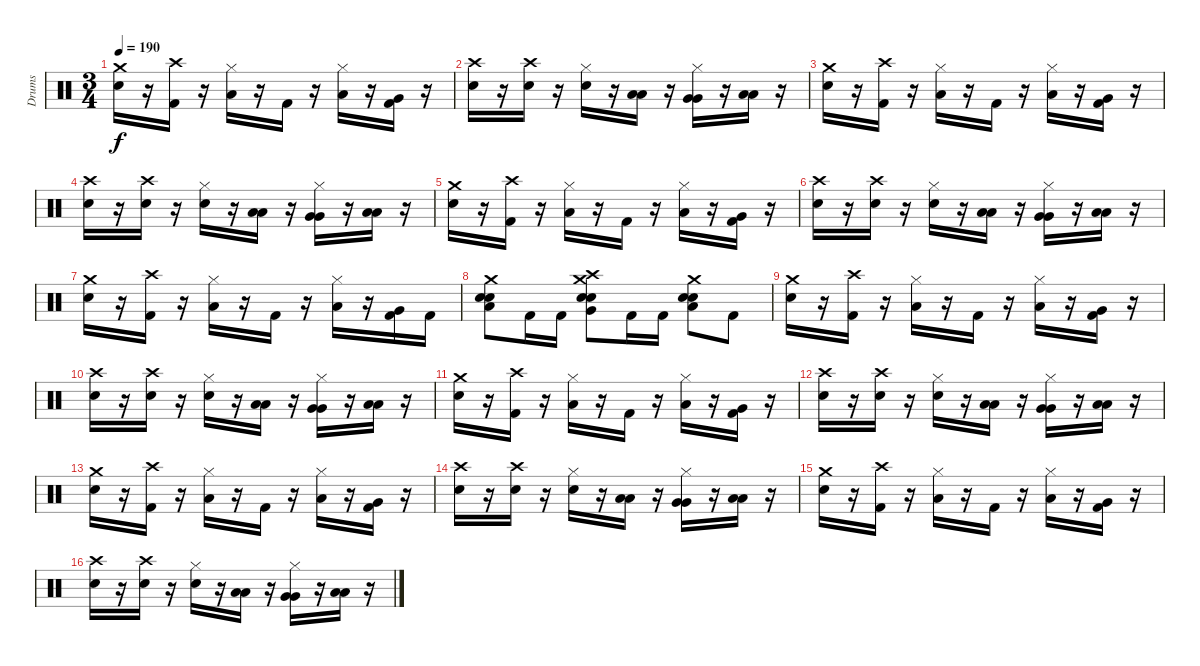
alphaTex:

\track ("Drums" "Drums") {instrument percussion}
\staff {score}
\articulation defaults
\ts (3 4)
\tempo 190
\clef neutral
\ks c
("Crash medium (hit)" "Snare (hit) 2").16{dy f} r.16 ("Crash high (hit)" "Kick (hit) 2").16 r.16 ("Hi-Hat (closed)" "Low Floor Tom (hit)").16 r.16 "Kick (hit) 2".16 r.16 ("Hi-Hat (closed)" "Low Tom (hit)").16 r.16 ("Very Low Tom (hit)" "Kick (hit) 2").16 r.16 |
("Crash high (hit)" "Snare (hit) 2").16 r.16 ("Crash high (hit)" "Snare (hit) 2").16 r.16 ("Hi-Hat (closed)" "Snare (hit) 2").16 r.16 ("Low Tom (hit)" "Low Tom (hit)").16 r.16 ("Hi-Hat (closed)" "Very Low Tom (hit)" "Very Low Tom (hit)").16 r.16 ("Low Floor Tom (hit)" "Low Floor Tom (hit)").16 r.16 |
("Crash medium (hit)" "Snare (hit) 2").16 r.16 ("Crash high (hit)" "Kick (hit) 2").16 r.16 ("Hi-Hat (closed)" "Low Floor Tom (hit)").16 r.16 "Kick (hit) 2".16 r.16 ("Hi-Hat (closed)" "Low Tom (hit)").16 r.16 ("Very Low Tom (hit)" "Kick (hit) 2").16 r.16 |
("Crash high (hit)" "Snare (hit) 2").16 r.16 ("Crash high (hit)" "Snare (hit) 2").16 r.16 ("Hi-Hat (closed)" "Snare (hit) 2").16 r.16 ("Low Tom (hit)" "Low Tom (hit)").16 r.16 ("Hi-Hat (closed)" "Very Low Tom (hit)" "Very Low Tom (hit)").16 r.16 ("Low Floor Tom (hit)" "Low Floor Tom (hit)").16 r.16 |
("Crash medium (hit)" "Snare (hit) 2").16 r.16 ("Crash high (hit)" "Kick (hit) 2").16 r.16 ("Hi-Hat (closed)" "Low Floor Tom (hit)").16 r.16 "Kick (hit) 2".16 r.16 ("Hi-Hat (closed)" "Low Tom (hit)").16 r.16 ("Very Low Tom (hit)" "Kick (hit) 2").16 r.16 |
("Crash high (hit)" "Snare (hit) 2").16 r.16 ("Crash high (hit)" "Snare (hit) 2").16 r.16 ("Hi-Hat (closed)" "Snare (hit) 2").16 r.16 ("Low Tom (hit)" "Low Tom (hit)").16 r.16 ("Hi-Hat (closed)" "Very Low Tom (hit)" "Very Low Tom (hit)").16 r.16 ("Low Floor Tom (hit)" "Low Floor Tom (hit)").16 r.16 |
("Crash medium (hit)" "Snare (hit) 2").16 r.16 ("Crash high (hit)" "Kick (hit) 2").16 r.16 ("Hi-Hat (closed)" "Low Floor Tom (hit)").16 r.16 "Kick (hit) 2".16 r.16 ("Hi-Hat (closed)" "Low Tom (hit)").16 r.16 ("Very Low Tom (hit)" "Kick (hit) 2").16 "Kick (hit) 2".16 |
("Crash medium (hit)" "Snare (hit) 2" "Snare (hit) 2" "Low Tom (hit)").8 "Kick (hit) 2".16 "Kick (hit) 2".16 ("Crash high (hit)" "Snare (hit) 2" "Snare (hit) 2" "Very Low Tom (hit)" "Crash medium (hit)").8 "Kick (hit) 2".16 "Kick (hit) 2".16 ("Crash medium (hit)" "Snare (hit) 2" "Snare (hit) 2" "Low Tom (hit)").8 "Kick (hit) 2".8 |
("Crash medium (hit)" "Snare (hit) 2").16 r.16 ("Crash high (hit)" "Kick (hit) 2").16 r.16 ("Hi-Hat (closed)" "Low Floor Tom (hit)").16 r.16 "Kick (hit) 2".16 r.16 ("Hi-Hat (closed)" "Low Tom (hit)").16 r.16 ("Very Low Tom (hit)" "Kick (hit) 2").16 r.16 |
("Crash high (hit)" "Snare (hit) 2").16 r.16 ("Crash high (hit)" "Snare (hit) 2").16 r.16 ("Hi-Hat (closed)" "Snare (hit) 2").16 r.16 ("Low Tom (hit)" "Low Tom (hit)").16 r.16 ("Hi-Hat (closed)" "Very Low Tom (hit)" "Very Low Tom (hit)").16 r.16 ("Low Floor Tom (hit)" "Low Floor Tom (hit)").16 r.16 |
("Crash medium (hit)" "Snare (hit) 2").16 r.16 ("Crash high (hit)" "Kick (hit) 2").16 r.16 ("Hi-Hat (closed)" "Low Floor Tom (hit)").16 r.16 "Kick (hit) 2".16 r.16 ("Hi-Hat (closed)" "Low Tom (hit)").16 r.16 ("Very Low Tom (hit)" "Kick (hit) 2").16 r.16 |
("Crash high (hit)" "Snare (hit) 2").16 r.16 ("Crash high (hit)" "Snare (hit) 2").16 r.16 ("Hi-Hat (closed)" "Snare (hit) 2").16 r.16 ("Low Tom (hit)" "Low Tom (hit)").16 r.16 ("Hi-Hat (closed)" "Very Low Tom (hit)" "Very Low Tom (hit)").16 r.16 ("Low Floor Tom (hit)" "Low Floor Tom (hit)").16 r.16 |
("Crash medium (hit)" "Snare (hit) 2").16 r.16 ("Crash high (hit)" "Kick (hit) 2").16 r.16 ("Hi-Hat (closed)" "Low Floor Tom (hit)").16 r.16 "Kick (hit) 2".16 r.16 ("Hi-Hat (closed)" "Low Tom (hit)").16 r.16 ("Very Low Tom (hit)" "Kick (hit) 2").16 r.16 |
("Crash high (hit)" "Snare (hit) 2").16 r.16 ("Crash high (hit)" "Snare (hit) 2").16 r.16 ("Hi-Hat (closed)" "Snare (hit) 2").16 r.16 ("Low Tom (hit)" "Low Tom (hit)").16 r.16 ("Hi-Hat (closed)" "Very Low Tom (hit)" "Very Low Tom (hit)").16 r.16 ("Low Floor Tom (hit)" "Low Floor Tom (hit)").16 r.16 |
("Crash medium (hit)" "Snare (hit) 2").16 r.16 ("Crash high (hit)" "Kick (hit) 2").16 r.16 ("Hi-Hat (closed)" "Low Floor Tom (hit)").16 r.16 "Kick (hit) 2".16 r.16 ("Hi-Hat (closed)" "Low Tom (hit)").16 r.16 ("Very Low Tom (hit)" "Kick (hit) 2").16 r.16 |
("Crash high (hit)" "Snare (hit) 2").16 r.16 ("Crash high (hit)" "Snare (hit) 2").16 r.16 ("Hi-Hat (closed)" "Snare (hit) 2").16 r.16 ("Low Tom (hit)" "Low Tom (hit)").16 r.16 ("Hi-Hat (closed)" "Very Low Tom (hit)" "Very Low Tom (hit)").16 r.16 ("Low Floor Tom (hit)" "Low Floor Tom (hit)").16 r.16
